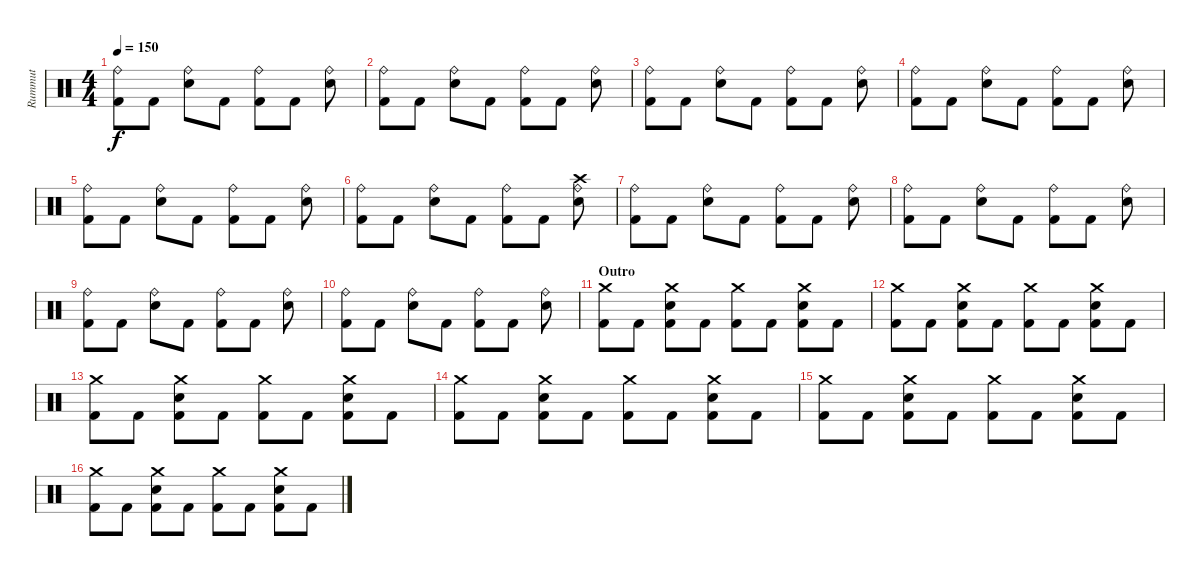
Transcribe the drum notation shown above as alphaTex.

\track ("Rummut" "Rummut") {instrument percussion}
\staff {score}
\articulation defaults
\ts (4 4)
\tempo 150
\clef neutral
\ks c
("Ride (bell)" "Kick (hit) 2").8{dy f} "Kick (hit) 2".8 ("Ride (bell)" "Snare (hit) 2").8 "Kick (hit) 2".8 ("Ride (bell)" "Kick (hit) 2").8 "Kick (hit) 2".8 ("Ride (bell)" "Snare (hit) 2").8 |
("Ride (bell)" "Kick (hit) 2").8 "Kick (hit) 2".8 ("Ride (bell)" "Snare (hit) 2").8 "Kick (hit) 2".8 ("Ride (bell)" "Kick (hit) 2").8 "Kick (hit) 2".8 ("Ride (bell)" "Snare (hit) 2").8 |
("Ride (bell)" "Kick (hit) 2").8 "Kick (hit) 2".8 ("Ride (bell)" "Snare (hit) 2").8 "Kick (hit) 2".8 ("Ride (bell)" "Kick (hit) 2").8 "Kick (hit) 2".8 ("Ride (bell)" "Snare (hit) 2").8 |
("Ride (bell)" "Kick (hit) 2").8 "Kick (hit) 2".8 ("Ride (bell)" "Snare (hit) 2").8 "Kick (hit) 2".8 ("Ride (bell)" "Kick (hit) 2").8 "Kick (hit) 2".8 ("Ride (bell)" "Snare (hit) 2").8 |
("Ride (bell)" "Kick (hit) 2").8 "Kick (hit) 2".8 ("Ride (bell)" "Snare (hit) 2").8 "Kick (hit) 2".8 ("Ride (bell)" "Kick (hit) 2").8 "Kick (hit) 2".8 ("Ride (bell)" "Snare (hit) 2").8 |
("Ride (bell)" "Kick (hit) 2").8 "Kick (hit) 2".8 ("Ride (bell)" "Snare (hit) 2").8 "Kick (hit) 2".8 ("Ride (bell)" "Kick (hit) 2").8 "Kick (hit) 2".8 ("Crash high (hit)" "Ride (bell)" "Snare (hit) 2").8 |
("Ride (bell)" "Kick (hit) 2").8 "Kick (hit) 2".8 ("Ride (bell)" "Snare (hit) 2").8 "Kick (hit) 2".8 ("Ride (bell)" "Kick (hit) 2").8 "Kick (hit) 2".8 ("Ride (bell)" "Snare (hit) 2").8 |
("Ride (bell)" "Kick (hit) 2").8 "Kick (hit) 2".8 ("Ride (bell)" "Snare (hit) 2").8 "Kick (hit) 2".8 ("Ride (bell)" "Kick (hit) 2").8 "Kick (hit) 2".8 ("Ride (bell)" "Snare (hit) 2").8 |
("Ride (bell)" "Kick (hit) 2").8 "Kick (hit) 2".8 ("Ride (bell)" "Snare (hit) 2").8 "Kick (hit) 2".8 ("Ride (bell)" "Kick (hit) 2").8 "Kick (hit) 2".8 ("Ride (bell)" "Snare (hit) 2").8 |
("Ride (bell)" "Kick (hit) 2").8 "Kick (hit) 2".8 ("Ride (bell)" "Snare (hit) 2").8 "Kick (hit) 2".8 ("Ride (bell)" "Kick (hit) 2").8 "Kick (hit) 2".8 ("Ride (bell)" "Snare (hit) 2").8 |
\section ("" "Outro")
("Crash medium (hit)" "Kick (hit) 2").8 "Kick (hit) 2".8 ("Crash medium (hit)" "Snare (hit) 2" "Kick (hit) 2").8 "Kick (hit) 2".8 ("Crash medium (hit)" "Kick (hit) 2").8 "Kick (hit) 2".8 ("Crash medium (hit)" "Snare (hit) 2" "Kick (hit) 2").8 "Kick (hit) 2".8 |
("Crash medium (hit)" "Kick (hit) 2").8 "Kick (hit) 2".8 ("Crash medium (hit)" "Snare (hit) 2" "Kick (hit) 2").8 "Kick (hit) 2".8 ("Crash medium (hit)" "Kick (hit) 2").8 "Kick (hit) 2".8 ("Crash medium (hit)" "Snare (hit) 2" "Kick (hit) 2").8 "Kick (hit) 2".8 |
("Crash medium (hit)" "Kick (hit) 2").8 "Kick (hit) 2".8 ("Crash medium (hit)" "Snare (hit) 2" "Kick (hit) 2").8 "Kick (hit) 2".8 ("Crash medium (hit)" "Kick (hit) 2").8 "Kick (hit) 2".8 ("Crash medium (hit)" "Snare (hit) 2" "Kick (hit) 2").8 "Kick (hit) 2".8 |
("Crash medium (hit)" "Kick (hit) 2").8 "Kick (hit) 2".8 ("Crash medium (hit)" "Snare (hit) 2" "Kick (hit) 2").8 "Kick (hit) 2".8 ("Crash medium (hit)" "Kick (hit) 2").8 "Kick (hit) 2".8 ("Crash medium (hit)" "Snare (hit) 2" "Kick (hit) 2").8 "Kick (hit) 2".8 |
("Crash medium (hit)" "Kick (hit) 2").8 "Kick (hit) 2".8 ("Crash medium (hit)" "Snare (hit) 2" "Kick (hit) 2").8 "Kick (hit) 2".8 ("Crash medium (hit)" "Kick (hit) 2").8 "Kick (hit) 2".8 ("Crash medium (hit)" "Snare (hit) 2" "Kick (hit) 2").8 "Kick (hit) 2".8 |
("Crash medium (hit)" "Kick (hit) 2").8 "Kick (hit) 2".8 ("Crash medium (hit)" "Snare (hit) 2" "Kick (hit) 2").8 "Kick (hit) 2".8 ("Crash medium (hit)" "Kick (hit) 2").8 "Kick (hit) 2".8 ("Crash medium (hit)" "Snare (hit) 2" "Kick (hit) 2").8 "Kick (hit) 2".8
